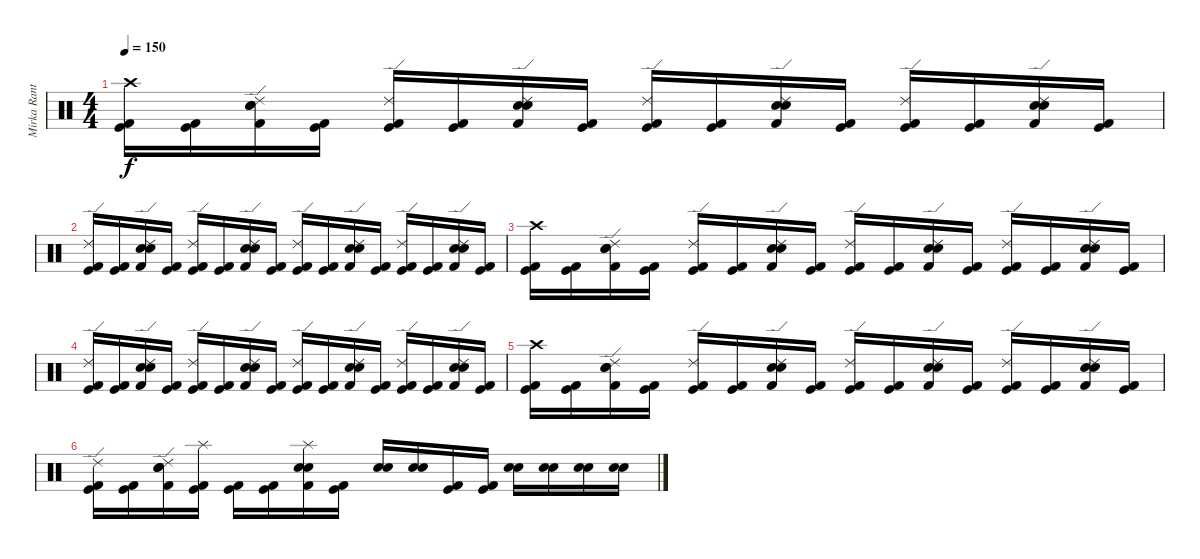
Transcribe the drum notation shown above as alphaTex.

\track ("Mirka Rantanen" "Mirka Rant") {instrument percussion}
\staff {score}
\articulation defaults
\ts (4 4)
\tempo 150
\clef neutral
\ks c
("Crash high (hit)" "Kick (hit)" "Kick (hit) 2").16{dy f} ("Kick (hit)" "Kick (hit) 2").16 ("Ride (edge) 2" "Kick (hit) 2" "Electric Snare (hit)" "Snare (hit) 2").16 ("Kick (hit)" "Kick (hit) 2").16 ("Ride (edge) 2" "Kick (hit)" "Kick (hit) 2").16 ("Kick (hit)" "Kick (hit) 2").16 ("Ride (edge) 2" "Kick (hit) 2" "Electric Snare (hit)" "Snare (hit) 2").16 ("Kick (hit)" "Kick (hit) 2").16 ("Ride (edge) 2" "Kick (hit)" "Kick (hit) 2").16 ("Kick (hit)" "Kick (hit) 2").16 ("Ride (edge) 2" "Kick (hit) 2" "Electric Snare (hit)" "Snare (hit) 2").16 ("Kick (hit)" "Kick (hit) 2").16 ("Ride (edge) 2" "Kick (hit)" "Kick (hit) 2").16 ("Kick (hit)" "Kick (hit) 2").16 ("Ride (edge) 2" "Kick (hit) 2" "Electric Snare (hit)" "Snare (hit) 2").16 ("Kick (hit)" "Kick (hit) 2").16 |
("Ride (edge) 2" "Kick (hit)" "Kick (hit) 2").16 ("Kick (hit)" "Kick (hit) 2").16 ("Ride (edge) 2" "Kick (hit) 2" "Electric Snare (hit)" "Snare (hit) 2").16 ("Kick (hit)" "Kick (hit) 2").16 ("Ride (edge) 2" "Kick (hit)" "Kick (hit) 2").16 ("Kick (hit)" "Kick (hit) 2").16 ("Ride (edge) 2" "Kick (hit) 2" "Electric Snare (hit)" "Snare (hit) 2").16 ("Kick (hit)" "Kick (hit) 2").16 ("Ride (edge) 2" "Kick (hit)" "Kick (hit) 2").16 ("Kick (hit)" "Kick (hit) 2").16 ("Ride (edge) 2" "Kick (hit) 2" "Electric Snare (hit)" "Snare (hit) 2").16 ("Kick (hit)" "Kick (hit) 2").16 ("Ride (edge) 2" "Kick (hit)" "Kick (hit) 2").16 ("Kick (hit)" "Kick (hit) 2").16 ("Ride (edge) 2" "Kick (hit) 2" "Electric Snare (hit)" "Snare (hit) 2").16 ("Kick (hit)" "Kick (hit) 2").16 |
("Crash high (hit)" "Kick (hit)" "Kick (hit) 2").16{volume 10} ("Kick (hit)" "Kick (hit) 2").16 ("Ride (edge) 2" "Kick (hit) 2" "Electric Snare (hit)" "Snare (hit) 2").16 ("Kick (hit)" "Kick (hit) 2").16 ("Ride (edge) 2" "Kick (hit)" "Kick (hit) 2").16 ("Kick (hit)" "Kick (hit) 2").16 ("Ride (edge) 2" "Kick (hit) 2" "Electric Snare (hit)" "Snare (hit) 2").16 ("Kick (hit)" "Kick (hit) 2").16 ("Ride (edge) 2" "Kick (hit)" "Kick (hit) 2").16 ("Kick (hit)" "Kick (hit) 2").16 ("Ride (edge) 2" "Kick (hit) 2" "Electric Snare (hit)" "Snare (hit) 2").16 ("Kick (hit)" "Kick (hit) 2").16 ("Ride (edge) 2" "Kick (hit)" "Kick (hit) 2").16 ("Kick (hit)" "Kick (hit) 2").16 ("Ride (edge) 2" "Kick (hit) 2" "Electric Snare (hit)" "Snare (hit) 2").16 ("Kick (hit)" "Kick (hit) 2").16 |
("Ride (edge) 2" "Kick (hit)" "Kick (hit) 2").16{volume 8} ("Kick (hit)" "Kick (hit) 2").16 ("Ride (edge) 2" "Kick (hit) 2" "Electric Snare (hit)" "Snare (hit) 2").16 ("Kick (hit)" "Kick (hit) 2").16 ("Ride (edge) 2" "Kick (hit)" "Kick (hit) 2").16 ("Kick (hit)" "Kick (hit) 2").16 ("Ride (edge) 2" "Kick (hit) 2" "Electric Snare (hit)" "Snare (hit) 2").16 ("Kick (hit)" "Kick (hit) 2").16 ("Ride (edge) 2" "Kick (hit)" "Kick (hit) 2").16 ("Kick (hit)" "Kick (hit) 2").16 ("Ride (edge) 2" "Kick (hit) 2" "Electric Snare (hit)" "Snare (hit) 2").16 ("Kick (hit)" "Kick (hit) 2").16 ("Ride (edge) 2" "Kick (hit)" "Kick (hit) 2").16 ("Kick (hit)" "Kick (hit) 2").16 ("Ride (edge) 2" "Kick (hit) 2" "Electric Snare (hit)" "Snare (hit) 2").16 ("Kick (hit)" "Kick (hit) 2").16 |
("Crash high (hit)" "Kick (hit)" "Kick (hit) 2").16{volume 5} ("Kick (hit)" "Kick (hit) 2").16 ("Ride (edge) 2" "Kick (hit) 2" "Electric Snare (hit)" "Snare (hit) 2").16 ("Kick (hit)" "Kick (hit) 2").16 ("Ride (edge) 2" "Kick (hit)" "Kick (hit) 2").16 ("Kick (hit)" "Kick (hit) 2").16 ("Ride (edge) 2" "Kick (hit) 2" "Electric Snare (hit)" "Snare (hit) 2").16 ("Kick (hit)" "Kick (hit) 2").16 ("Ride (edge) 2" "Kick (hit)" "Kick (hit) 2").16 ("Kick (hit)" "Kick (hit) 2").16 ("Ride (edge) 2" "Kick (hit) 2" "Electric Snare (hit)" "Snare (hit) 2").16 ("Kick (hit)" "Kick (hit) 2").16 ("Ride (edge) 2" "Kick (hit)" "Kick (hit) 2").16 ("Kick (hit)" "Kick (hit) 2").16 ("Ride (edge) 2" "Kick (hit) 2" "Electric Snare (hit)" "Snare (hit) 2").16 ("Kick (hit)" "Kick (hit) 2").16 |
("Ride (edge) 2" "Kick (hit)" "Kick (hit) 2").16{volume 3} ("Kick (hit)" "Kick (hit) 2").16 ("Ride (edge) 2" "Kick (hit) 2" "Electric Snare (hit)" "Snare (hit) 2").16 ("Splash (hit)" "Kick (hit)" "Kick (hit) 2").16 ("Kick (hit)" "Kick (hit) 2").16{volume 1} ("Kick (hit)" "Kick (hit) 2").16 ("Splash (hit)" "Kick (hit) 2" "Electric Snare (hit)" "Snare (hit) 2").16 ("Kick (hit)" "Kick (hit) 2").16 ("Electric Snare (hit)" "Snare (hit) 2").16{volume 0} ("Electric Snare (hit)" "Snare (hit) 2").16 ("Kick (hit)" "Kick (hit) 2").16 ("Kick (hit)" "Kick (hit) 2").16 ("Electric Snare (hit)" "Snare (hit) 2").16 ("Electric Snare (hit)" "Snare (hit) 2").16 ("Electric Snare (hit)" "Snare (hit) 2").16 ("Electric Snare (hit)" "Snare (hit) 2").16
